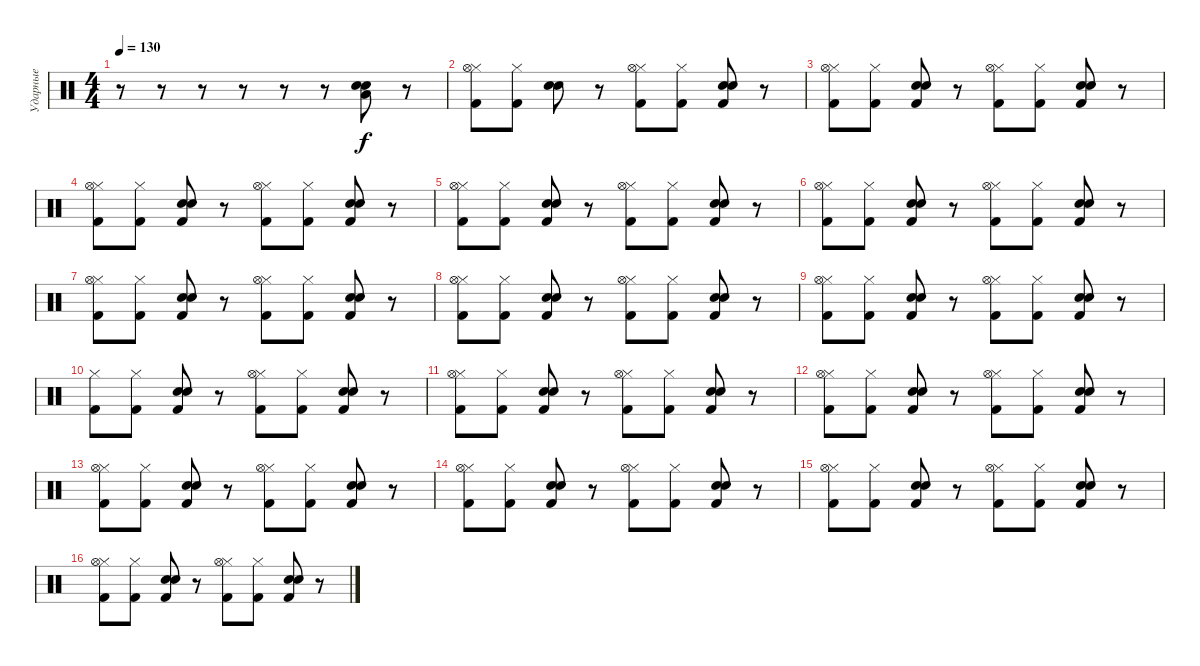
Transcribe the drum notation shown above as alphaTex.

\track ("Ударные" "Ударные") {instrument percussion}
\staff {score}
\articulation defaults
\ts (4 4)
\tempo 130
\clef neutral
\ks c
r.8{dy f} r.8 r.8 r.8 r.8 r.8 ("Electric Snare (hit)" "Snare (hit) 2" "Low Floor Tom (hit)").8 r.8 |
("Hi-Hat (closed)" "Kick (hit) 2" "Hi-Hat (open)").8 ("Hi-Hat (closed)" "Kick (hit) 2").8 ("Snare (hit) 2" "Electric Snare (hit)").8 r.8 ("Hi-Hat (closed)" "Kick (hit) 2" "Hi-Hat (open)").8 ("Hi-Hat (closed)" "Kick (hit) 2").8 ("Snare (hit) 2" "Kick (hit) 2" "Electric Snare (hit)").8 r.8 |
("Hi-Hat (closed)" "Kick (hit) 2" "Hi-Hat (open)").8 ("Hi-Hat (closed)" "Kick (hit) 2").8 ("Snare (hit) 2" "Kick (hit) 2" "Electric Snare (hit)").8 r.8 ("Hi-Hat (closed)" "Kick (hit) 2" "Hi-Hat (open)").8 ("Hi-Hat (closed)" "Kick (hit) 2").8 ("Snare (hit) 2" "Kick (hit) 2" "Electric Snare (hit)").8 r.8 |
("Hi-Hat (closed)" "Kick (hit) 2" "Hi-Hat (open)").8 ("Hi-Hat (closed)" "Kick (hit) 2").8 ("Snare (hit) 2" "Kick (hit) 2" "Electric Snare (hit)").8 r.8 ("Hi-Hat (closed)" "Kick (hit) 2" "Hi-Hat (open)").8 ("Hi-Hat (closed)" "Kick (hit) 2").8 ("Snare (hit) 2" "Kick (hit) 2" "Electric Snare (hit)").8 r.8 |
("Hi-Hat (closed)" "Kick (hit) 2" "Hi-Hat (open)").8 ("Hi-Hat (closed)" "Kick (hit) 2").8 ("Snare (hit) 2" "Kick (hit) 2" "Electric Snare (hit)").8 r.8 ("Hi-Hat (closed)" "Kick (hit) 2" "Hi-Hat (open)").8 ("Hi-Hat (closed)" "Kick (hit) 2").8 ("Snare (hit) 2" "Kick (hit) 2" "Electric Snare (hit)").8 r.8 |
("Hi-Hat (closed)" "Kick (hit) 2" "Hi-Hat (open)").8 ("Hi-Hat (closed)" "Kick (hit) 2").8 ("Snare (hit) 2" "Kick (hit) 2" "Electric Snare (hit)").8 r.8 ("Hi-Hat (closed)" "Kick (hit) 2" "Hi-Hat (open)").8 ("Hi-Hat (closed)" "Kick (hit) 2").8 ("Snare (hit) 2" "Kick (hit) 2" "Electric Snare (hit)").8 r.8 |
("Hi-Hat (closed)" "Kick (hit) 2" "Hi-Hat (open)").8 ("Hi-Hat (closed)" "Kick (hit) 2").8 ("Snare (hit) 2" "Kick (hit) 2" "Electric Snare (hit)").8 r.8 ("Hi-Hat (closed)" "Kick (hit) 2" "Hi-Hat (open)").8 ("Hi-Hat (closed)" "Kick (hit) 2").8 ("Snare (hit) 2" "Kick (hit) 2" "Electric Snare (hit)").8 r.8 |
("Hi-Hat (closed)" "Kick (hit) 2" "Hi-Hat (open)").8 ("Hi-Hat (closed)" "Kick (hit) 2").8 ("Snare (hit) 2" "Kick (hit) 2" "Electric Snare (hit)").8 r.8 ("Hi-Hat (closed)" "Kick (hit) 2" "Hi-Hat (open)").8 ("Hi-Hat (closed)" "Kick (hit) 2").8 ("Snare (hit) 2" "Kick (hit) 2" "Electric Snare (hit)").8 r.8 |
("Hi-Hat (closed)" "Kick (hit) 2" "Hi-Hat (open)").8 ("Hi-Hat (closed)" "Kick (hit) 2").8 ("Snare (hit) 2" "Kick (hit) 2" "Electric Snare (hit)").8 r.8 ("Hi-Hat (closed)" "Kick (hit) 2" "Hi-Hat (open)").8 ("Hi-Hat (closed)" "Kick (hit) 2").8 ("Snare (hit) 2" "Kick (hit) 2" "Electric Snare (hit)").8 r.8 |
("Hi-Hat (closed)" "Kick (hit) 2").8 ("Hi-Hat (closed)" "Kick (hit) 2").8 ("Snare (hit) 2" "Kick (hit) 2" "Electric Snare (hit)").8 r.8 ("Hi-Hat (closed)" "Kick (hit) 2" "Hi-Hat (open)").8 ("Hi-Hat (closed)" "Kick (hit) 2").8 ("Snare (hit) 2" "Kick (hit) 2" "Electric Snare (hit)").8 r.8 |
("Hi-Hat (closed)" "Kick (hit) 2" "Hi-Hat (open)").8 ("Hi-Hat (closed)" "Kick (hit) 2").8 ("Snare (hit) 2" "Kick (hit) 2" "Electric Snare (hit)").8 r.8 ("Hi-Hat (closed)" "Kick (hit) 2" "Hi-Hat (open)").8 ("Hi-Hat (closed)" "Kick (hit) 2").8 ("Snare (hit) 2" "Kick (hit) 2" "Electric Snare (hit)").8 r.8 |
("Hi-Hat (closed)" "Kick (hit) 2" "Hi-Hat (open)").8 ("Hi-Hat (closed)" "Kick (hit) 2").8 ("Snare (hit) 2" "Kick (hit) 2" "Electric Snare (hit)").8 r.8 ("Hi-Hat (closed)" "Kick (hit) 2" "Hi-Hat (open)").8 ("Hi-Hat (closed)" "Kick (hit) 2").8 ("Snare (hit) 2" "Kick (hit) 2" "Electric Snare (hit)").8 r.8 |
("Hi-Hat (closed)" "Kick (hit) 2" "Hi-Hat (open)").8 ("Hi-Hat (closed)" "Kick (hit) 2").8 ("Snare (hit) 2" "Kick (hit) 2" "Electric Snare (hit)").8 r.8 ("Hi-Hat (closed)" "Kick (hit) 2" "Hi-Hat (open)").8 ("Hi-Hat (closed)" "Kick (hit) 2").8 ("Snare (hit) 2" "Kick (hit) 2" "Electric Snare (hit)").8 r.8 |
("Hi-Hat (closed)" "Kick (hit) 2" "Hi-Hat (open)").8 ("Hi-Hat (closed)" "Kick (hit) 2").8 ("Snare (hit) 2" "Kick (hit) 2" "Electric Snare (hit)").8 r.8 ("Hi-Hat (closed)" "Kick (hit) 2" "Hi-Hat (open)").8 ("Hi-Hat (closed)" "Kick (hit) 2").8 ("Snare (hit) 2" "Kick (hit) 2" "Electric Snare (hit)").8 r.8 |
("Hi-Hat (closed)" "Kick (hit) 2" "Hi-Hat (open)").8 ("Hi-Hat (closed)" "Kick (hit) 2").8 ("Snare (hit) 2" "Kick (hit) 2" "Electric Snare (hit)").8 r.8 ("Hi-Hat (closed)" "Kick (hit) 2" "Hi-Hat (open)").8 ("Hi-Hat (closed)" "Kick (hit) 2").8 ("Snare (hit) 2" "Kick (hit) 2" "Electric Snare (hit)").8 r.8 |
("Hi-Hat (closed)" "Kick (hit) 2" "Hi-Hat (open)").8 ("Hi-Hat (closed)" "Kick (hit) 2").8 ("Snare (hit) 2" "Kick (hit) 2" "Electric Snare (hit)").8 r.8 ("Hi-Hat (closed)" "Kick (hit) 2" "Hi-Hat (open)").8 ("Hi-Hat (closed)" "Kick (hit) 2").8 ("Snare (hit) 2" "Kick (hit) 2" "Electric Snare (hit)").8 r.8
